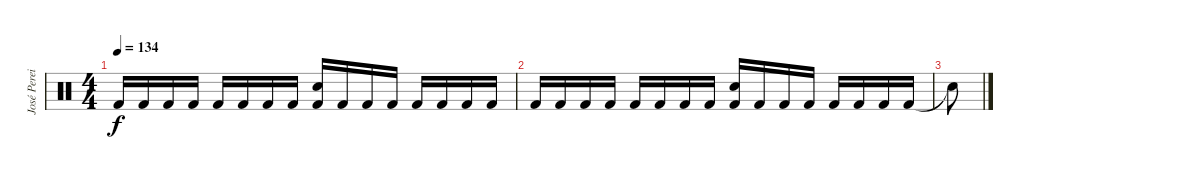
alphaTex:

\track ("José Pereira" "José Perei") {instrument percussion}
\staff {score}
\articulation defaults
\ts (4 4)
\tempo 134
\clef neutral
\ks c "Kick (hit) 2".16{dy f} "Kick (hit) 2".16 "Kick (hit) 2".16 "Kick (hit) 2".16 "Kick (hit) 2".16 "Kick (hit) 2".16 "Kick (hit) 2".16 "Kick (hit) 2".16
("Snare (hit) 2" "Kick (hit) 2").16 "Kick (hit) 2".16 "Kick (hit) 2".16 "Kick (hit) 2".16 "Kick (hit) 2".16 "Kick (hit) 2".16 "Kick (hit) 2".16 "Kick (hit) 2".16 |
"Kick (hit) 2".16 "Kick (hit) 2".16 "Kick (hit) 2".16 "Kick (hit) 2".16 "Kick (hit) 2".16 "Kick (hit) 2".16 "Kick (hit) 2".16 "Kick (hit) 2".16 ("Snare (hit) 2" "Kick (hit) 2").16 "Kick (hit) 2".16 "Kick (hit) 2".16 "Kick (hit) 2".16 "Kick (hit) 2".16 "Kick (hit) 2".16 "Kick (hit) 2".16 "Kick (hit) 2".16 |
"Snare (hit)"{t}.8
